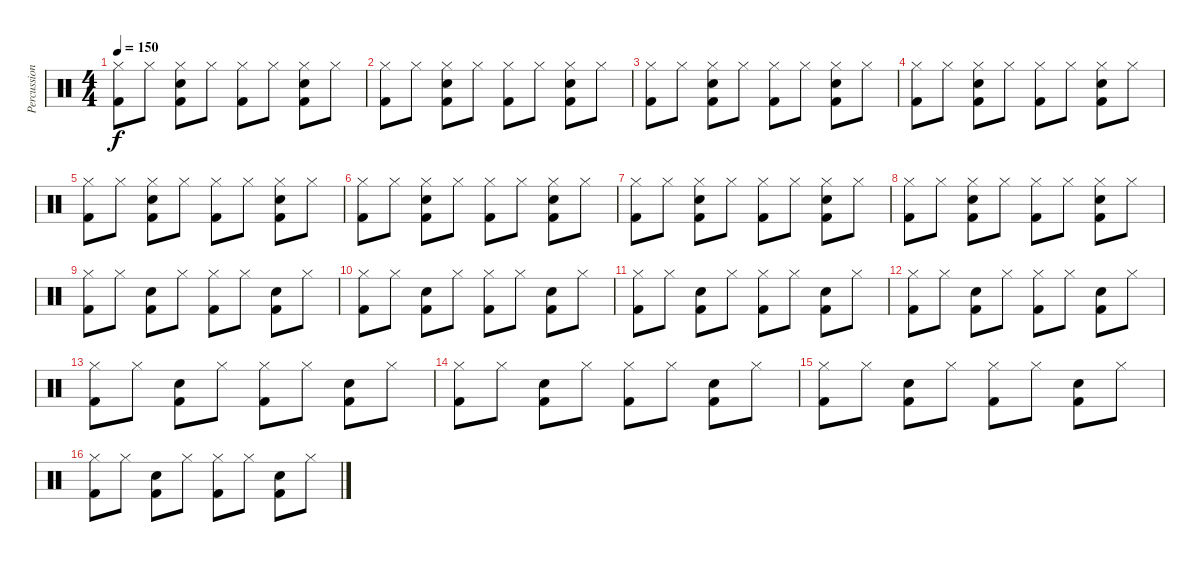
\track ("Percussion" "Percussion") {instrument percussion}
\staff {score}
\articulation defaults
\ts (4 4)
\tempo 150
\clef neutral
\ks c
("Hi-Hat (closed)" "Kick (hit) 2").8{dy f} "Hi-Hat (closed)".8 ("Hi-Hat (closed)" "Snare (hit) 2" "Kick (hit) 2").8 "Hi-Hat (closed)".8 ("Hi-Hat (closed)" "Kick (hit) 2").8 "Hi-Hat (closed)".8 ("Hi-Hat (closed)" "Snare (hit) 2" "Kick (hit) 2").8 "Hi-Hat (closed)".8 |
("Hi-Hat (closed)" "Kick (hit) 2").8 "Hi-Hat (closed)".8 ("Hi-Hat (closed)" "Snare (hit) 2" "Kick (hit) 2").8 "Hi-Hat (closed)".8 ("Hi-Hat (closed)" "Kick (hit) 2").8 "Hi-Hat (closed)".8 ("Hi-Hat (closed)" "Snare (hit) 2" "Kick (hit) 2").8 "Hi-Hat (closed)".8 |
("Hi-Hat (closed)" "Kick (hit) 2").8 "Hi-Hat (closed)".8 ("Hi-Hat (closed)" "Snare (hit) 2" "Kick (hit) 2").8 "Hi-Hat (closed)".8 ("Hi-Hat (closed)" "Kick (hit) 2").8 "Hi-Hat (closed)".8 ("Hi-Hat (closed)" "Snare (hit) 2" "Kick (hit) 2").8 "Hi-Hat (closed)".8 |
("Hi-Hat (closed)" "Kick (hit) 2").8 "Hi-Hat (closed)".8 ("Hi-Hat (closed)" "Snare (hit) 2" "Kick (hit) 2").8 "Hi-Hat (closed)".8 ("Hi-Hat (closed)" "Kick (hit) 2").8 "Hi-Hat (closed)".8 ("Hi-Hat (closed)" "Snare (hit) 2" "Kick (hit) 2").8 "Hi-Hat (closed)".8 |
("Hi-Hat (closed)" "Kick (hit) 2").8 "Hi-Hat (closed)".8 ("Hi-Hat (closed)" "Snare (hit) 2" "Kick (hit) 2").8 "Hi-Hat (closed)".8 ("Hi-Hat (closed)" "Kick (hit) 2").8 "Hi-Hat (closed)".8 ("Hi-Hat (closed)" "Snare (hit) 2" "Kick (hit) 2").8 "Hi-Hat (closed)".8 |
("Hi-Hat (closed)" "Kick (hit) 2").8 "Hi-Hat (closed)".8 ("Hi-Hat (closed)" "Snare (hit) 2" "Kick (hit) 2").8 "Hi-Hat (closed)".8 ("Hi-Hat (closed)" "Kick (hit) 2").8 "Hi-Hat (closed)".8 ("Hi-Hat (closed)" "Snare (hit) 2" "Kick (hit) 2").8 "Hi-Hat (closed)".8 |
("Hi-Hat (closed)" "Kick (hit) 2").8 "Hi-Hat (closed)".8 ("Hi-Hat (closed)" "Snare (hit) 2" "Kick (hit) 2").8 "Hi-Hat (closed)".8 ("Hi-Hat (closed)" "Kick (hit) 2").8 "Hi-Hat (closed)".8 ("Hi-Hat (closed)" "Snare (hit) 2" "Kick (hit) 2").8 "Hi-Hat (closed)".8 |
("Hi-Hat (closed)" "Kick (hit) 2").8 "Hi-Hat (closed)".8 ("Hi-Hat (closed)" "Snare (hit) 2" "Kick (hit) 2").8 "Hi-Hat (closed)".8 ("Hi-Hat (closed)" "Kick (hit) 2").8 "Hi-Hat (closed)".8 ("Hi-Hat (closed)" "Snare (hit) 2" "Kick (hit) 2").8 "Hi-Hat (closed)".8 |
("Hi-Hat (closed)" "Kick (hit) 2").8 "Hi-Hat (closed)".8 ("Snare (hit) 2" "Kick (hit) 2").8 "Hi-Hat (closed)".8 ("Hi-Hat (closed)" "Kick (hit) 2").8 "Hi-Hat (closed)".8 ("Snare (hit) 2" "Kick (hit) 2").8 "Hi-Hat (closed)".8 |
("Hi-Hat (closed)" "Kick (hit) 2").8 "Hi-Hat (closed)".8 ("Snare (hit) 2" "Kick (hit) 2").8 "Hi-Hat (closed)".8 ("Hi-Hat (closed)" "Kick (hit) 2").8 "Hi-Hat (closed)".8 ("Snare (hit) 2" "Kick (hit) 2").8 "Hi-Hat (closed)".8 |
("Hi-Hat (closed)" "Kick (hit) 2").8 "Hi-Hat (closed)".8 ("Snare (hit) 2" "Kick (hit) 2").8 "Hi-Hat (closed)".8 ("Hi-Hat (closed)" "Kick (hit) 2").8 "Hi-Hat (closed)".8 ("Snare (hit) 2" "Kick (hit) 2").8 "Hi-Hat (closed)".8 |
("Hi-Hat (closed)" "Kick (hit) 2").8 "Hi-Hat (closed)".8 ("Snare (hit) 2" "Kick (hit) 2").8 "Hi-Hat (closed)".8 ("Hi-Hat (closed)" "Kick (hit) 2").8 "Hi-Hat (closed)".8 ("Snare (hit) 2" "Kick (hit) 2").8 "Hi-Hat (closed)".8 |
("Hi-Hat (closed)" "Kick (hit) 2").8 "Hi-Hat (closed)".8 ("Snare (hit) 2" "Kick (hit) 2").8 "Hi-Hat (closed)".8 ("Hi-Hat (closed)" "Kick (hit) 2").8 "Hi-Hat (closed)".8 ("Snare (hit) 2" "Kick (hit) 2").8 "Hi-Hat (closed)".8 |
("Hi-Hat (closed)" "Kick (hit) 2").8 "Hi-Hat (closed)".8 ("Snare (hit) 2" "Kick (hit) 2").8 "Hi-Hat (closed)".8 ("Hi-Hat (closed)" "Kick (hit) 2").8 "Hi-Hat (closed)".8 ("Snare (hit) 2" "Kick (hit) 2").8 "Hi-Hat (closed)".8 |
("Hi-Hat (closed)" "Kick (hit) 2").8 "Hi-Hat (closed)".8 ("Snare (hit) 2" "Kick (hit) 2").8 "Hi-Hat (closed)".8 ("Hi-Hat (closed)" "Kick (hit) 2").8 "Hi-Hat (closed)".8 ("Snare (hit) 2" "Kick (hit) 2").8 "Hi-Hat (closed)".8 |
("Hi-Hat (closed)" "Kick (hit) 2").8 "Hi-Hat (closed)".8 ("Snare (hit) 2" "Kick (hit) 2").8 "Hi-Hat (closed)".8 ("Hi-Hat (closed)" "Kick (hit) 2").8 "Hi-Hat (closed)".8 ("Snare (hit) 2" "Kick (hit) 2").8 "Hi-Hat (closed)".8
